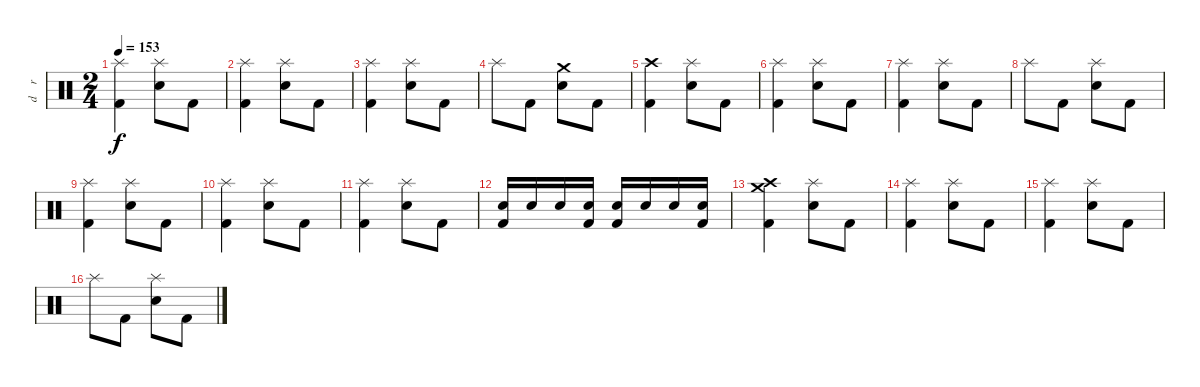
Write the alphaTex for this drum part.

\track ("d    r     u    m    s" "d    r    ") {instrument percussion}
\staff {score}
\articulation defaults
\ts (2 4)
\tempo 153
\clef neutral
\ks c
("Splash (hit)" "Kick (hit) 2").4{dy f} ("Splash (hit)" "Electric Snare (hit)").8 "Kick (hit) 2".8 |
("Splash (hit)" "Kick (hit) 2").4 ("Splash (hit)" "Electric Snare (hit)").8 "Kick (hit) 2".8 |
("Splash (hit)" "Kick (hit) 2").4 ("Splash (hit)" "Electric Snare (hit)").8 "Kick (hit) 2".8 |
"Splash (hit)".8 "Kick (hit) 2".8 ("Crash medium (hit)" "Electric Snare (hit)").8 "Kick (hit) 2".8 |
("Crash high (hit)" "Kick (hit) 2").4 ("Splash (hit)" "Electric Snare (hit)").8 "Kick (hit) 2".8 |
("Splash (hit)" "Kick (hit) 2").4 ("Splash (hit)" "Electric Snare (hit)").8 "Kick (hit) 2".8 |
("Splash (hit)" "Kick (hit) 2").4 ("Splash (hit)" "Electric Snare (hit)").8 "Kick (hit) 2".8 |
"Splash (hit)".8 "Kick (hit) 2".8 ("Splash (hit)" "Electric Snare (hit)").8 "Kick (hit) 2".8 |
("Splash (hit)" "Kick (hit) 2").4 ("Splash (hit)" "Electric Snare (hit)").8 "Kick (hit) 2".8 |
("Splash (hit)" "Kick (hit) 2").4 ("Splash (hit)" "Electric Snare (hit)").8 "Kick (hit) 2".8 |
("Splash (hit)" "Kick (hit) 2").4 ("Splash (hit)" "Electric Snare (hit)").8 "Kick (hit) 2".8 |
("Electric Snare (hit)" "Kick (hit) 2").16 "Electric Snare (hit)".16 "Electric Snare (hit)".16 ("Electric Snare (hit)" "Kick (hit) 2").16 ("Electric Snare (hit)" "Kick (hit) 2").16 "Electric Snare (hit)".16 "Electric Snare (hit)".16 ("Electric Snare (hit)" "Kick (hit) 2").16 |
("Crash high (hit)" "Crash medium (hit)" "Kick (hit) 2").4 ("Splash (hit)" "Electric Snare (hit)").8 "Kick (hit) 2".8 |
("Splash (hit)" "Kick (hit) 2").4 ("Splash (hit)" "Electric Snare (hit)").8 "Kick (hit) 2".8 |
("Splash (hit)" "Kick (hit) 2").4 ("Splash (hit)" "Electric Snare (hit)").8 "Kick (hit) 2".8 |
"Splash (hit)".8 "Kick (hit) 2".8 ("Splash (hit)" "Electric Snare (hit)").8 "Kick (hit) 2".8
